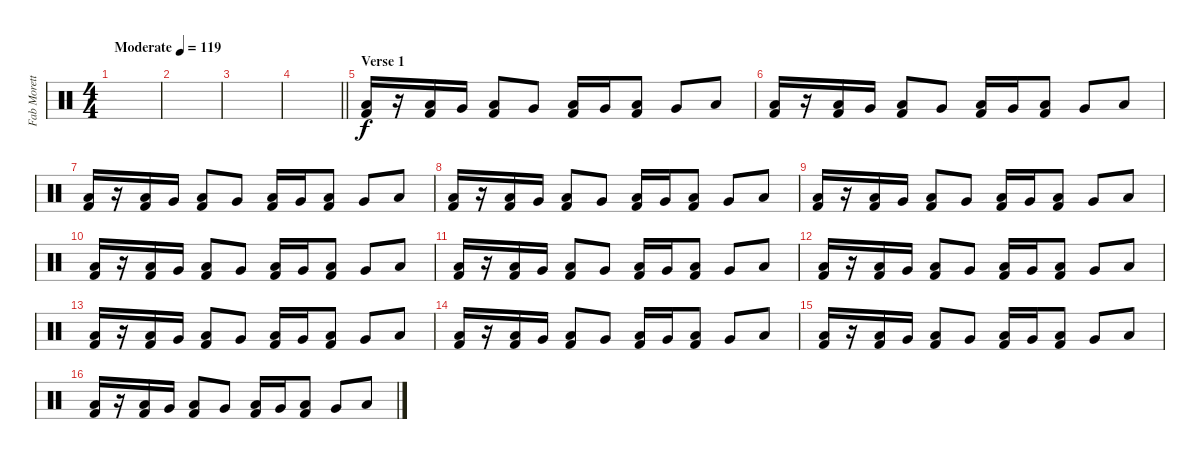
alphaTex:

\track ("Fab Moretti" "Fab Morett") {instrument percussion}
\staff {score}
\articulation defaults
\ts (4 4)
\tempo (119 "Moderate")
\clef neutral
\ks c
|
|
|
\barLineRight lightlight
|
\section ("" "Verse 1")
("Low Floor Tom (hit)" "Kick (hit) 2").16 r.16 ("Low Floor Tom (hit)" "Kick (hit) 2").16 "Very Low Tom (hit)".16 ("Low Floor Tom (hit)" "Kick (hit) 2").8 "Very Low Tom (hit)".8 ("Low Floor Tom (hit)" "Kick (hit) 2").16 "Very Low Tom (hit)".16 ("Low Floor Tom (hit)" "Kick (hit) 2").8 "Very Low Tom (hit)".8 "Low Floor Tom (hit)".8 |
("Low Floor Tom (hit)" "Kick (hit) 2").16 r.16 ("Low Floor Tom (hit)" "Kick (hit) 2").16 "Very Low Tom (hit)".16 ("Low Floor Tom (hit)" "Kick (hit) 2").8 "Very Low Tom (hit)".8 ("Low Floor Tom (hit)" "Kick (hit) 2").16 "Very Low Tom (hit)".16 ("Low Floor Tom (hit)" "Kick (hit) 2").8 "Very Low Tom (hit)".8 "Low Floor Tom (hit)".8 |
("Low Floor Tom (hit)" "Kick (hit) 2").16 r.16 ("Low Floor Tom (hit)" "Kick (hit) 2").16 "Very Low Tom (hit)".16 ("Low Floor Tom (hit)" "Kick (hit) 2").8 "Very Low Tom (hit)".8 ("Low Floor Tom (hit)" "Kick (hit) 2").16 "Very Low Tom (hit)".16 ("Low Floor Tom (hit)" "Kick (hit) 2").8 "Very Low Tom (hit)".8 "Low Floor Tom (hit)".8 |
("Low Floor Tom (hit)" "Kick (hit) 2").16 r.16 ("Low Floor Tom (hit)" "Kick (hit) 2").16 "Very Low Tom (hit)".16 ("Low Floor Tom (hit)" "Kick (hit) 2").8 "Very Low Tom (hit)".8 ("Low Floor Tom (hit)" "Kick (hit) 2").16 "Very Low Tom (hit)".16 ("Low Floor Tom (hit)" "Kick (hit) 2").8 "Very Low Tom (hit)".8 "Low Floor Tom (hit)".8 |
("Low Floor Tom (hit)" "Kick (hit) 2").16 r.16 ("Low Floor Tom (hit)" "Kick (hit) 2").16 "Very Low Tom (hit)".16 ("Low Floor Tom (hit)" "Kick (hit) 2").8 "Very Low Tom (hit)".8 ("Low Floor Tom (hit)" "Kick (hit) 2").16 "Very Low Tom (hit)".16 ("Low Floor Tom (hit)" "Kick (hit) 2").8 "Very Low Tom (hit)".8 "Low Floor Tom (hit)".8 |
("Low Floor Tom (hit)" "Kick (hit) 2").16 r.16 ("Low Floor Tom (hit)" "Kick (hit) 2").16 "Very Low Tom (hit)".16 ("Low Floor Tom (hit)" "Kick (hit) 2").8 "Very Low Tom (hit)".8 ("Low Floor Tom (hit)" "Kick (hit) 2").16 "Very Low Tom (hit)".16 ("Low Floor Tom (hit)" "Kick (hit) 2").8 "Very Low Tom (hit)".8 "Low Floor Tom (hit)".8 |
("Low Floor Tom (hit)" "Kick (hit) 2").16 r.16 ("Low Floor Tom (hit)" "Kick (hit) 2").16 "Very Low Tom (hit)".16 ("Low Floor Tom (hit)" "Kick (hit) 2").8 "Very Low Tom (hit)".8 ("Low Floor Tom (hit)" "Kick (hit) 2").16 "Very Low Tom (hit)".16 ("Low Floor Tom (hit)" "Kick (hit) 2").8 "Very Low Tom (hit)".8 "Low Floor Tom (hit)".8 |
("Low Floor Tom (hit)" "Kick (hit) 2").16 r.16 ("Low Floor Tom (hit)" "Kick (hit) 2").16 "Very Low Tom (hit)".16 ("Low Floor Tom (hit)" "Kick (hit) 2").8 "Very Low Tom (hit)".8 ("Low Floor Tom (hit)" "Kick (hit) 2").16 "Very Low Tom (hit)".16 ("Low Floor Tom (hit)" "Kick (hit) 2").8 "Very Low Tom (hit)".8 "Low Floor Tom (hit)".8 |
("Low Floor Tom (hit)" "Kick (hit) 2").16 r.16 ("Low Floor Tom (hit)" "Kick (hit) 2").16 "Very Low Tom (hit)".16 ("Low Floor Tom (hit)" "Kick (hit) 2").8 "Very Low Tom (hit)".8 ("Low Floor Tom (hit)" "Kick (hit) 2").16 "Very Low Tom (hit)".16 ("Low Floor Tom (hit)" "Kick (hit) 2").8 "Very Low Tom (hit)".8 "Low Floor Tom (hit)".8 |
("Low Floor Tom (hit)" "Kick (hit) 2").16 r.16 ("Low Floor Tom (hit)" "Kick (hit) 2").16 "Very Low Tom (hit)".16 ("Low Floor Tom (hit)" "Kick (hit) 2").8 "Very Low Tom (hit)".8 ("Low Floor Tom (hit)" "Kick (hit) 2").16 "Very Low Tom (hit)".16 ("Low Floor Tom (hit)" "Kick (hit) 2").8 "Very Low Tom (hit)".8 "Low Floor Tom (hit)".8 |
("Low Floor Tom (hit)" "Kick (hit) 2").16 r.16 ("Low Floor Tom (hit)" "Kick (hit) 2").16 "Very Low Tom (hit)".16 ("Low Floor Tom (hit)" "Kick (hit) 2").8 "Very Low Tom (hit)".8 ("Low Floor Tom (hit)" "Kick (hit) 2").16 "Very Low Tom (hit)".16 ("Low Floor Tom (hit)" "Kick (hit) 2").8 "Very Low Tom (hit)".8 "Low Floor Tom (hit)".8 |
("Low Floor Tom (hit)" "Kick (hit) 2").16 r.16 ("Low Floor Tom (hit)" "Kick (hit) 2").16 "Very Low Tom (hit)".16 ("Low Floor Tom (hit)" "Kick (hit) 2").8 "Very Low Tom (hit)".8 ("Low Floor Tom (hit)" "Kick (hit) 2").16 "Very Low Tom (hit)".16 ("Low Floor Tom (hit)" "Kick (hit) 2").8 "Very Low Tom (hit)".8 "Low Floor Tom (hit)".8
